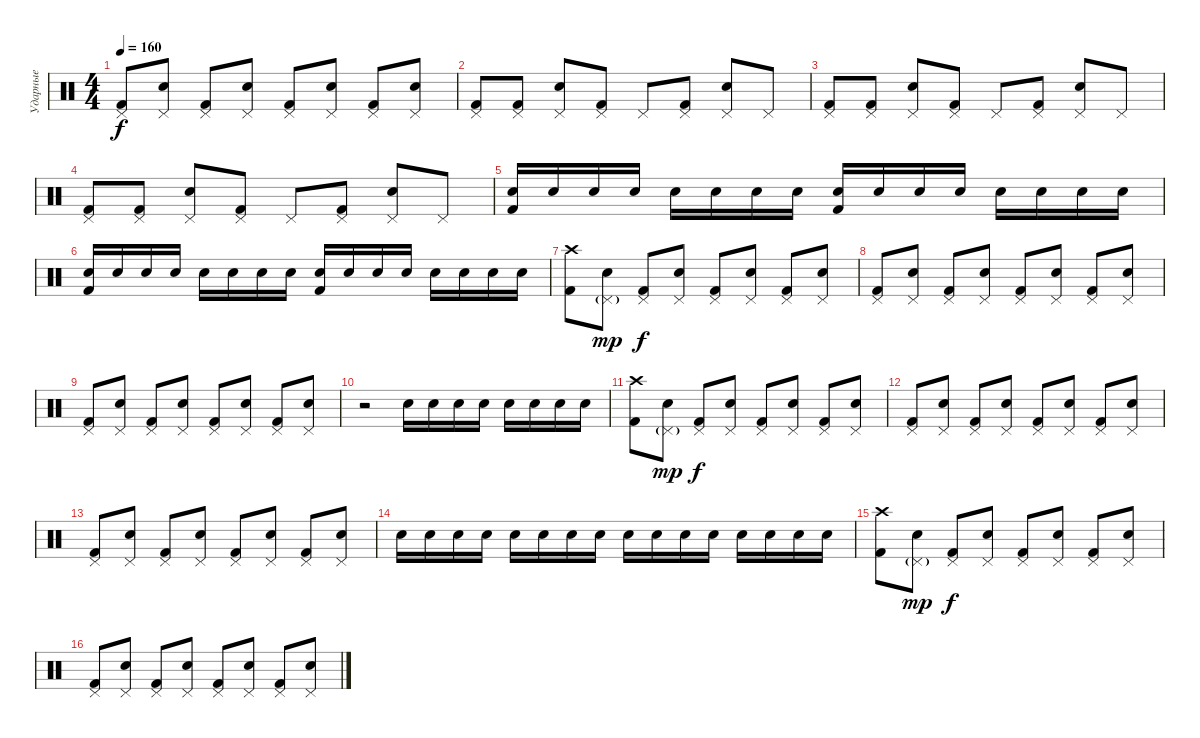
\track ("Ударные" "Ударные") {instrument percussion}
\staff {score}
\articulation defaults
\ts (4 4)
\tempo 160
\clef neutral
\ks c
("Kick (hit) 2" "Pedal Hi-Hat (hit)").8{dy f} ("Electric Snare (hit)" "Pedal Hi-Hat (hit)").8 ("Kick (hit) 2" "Pedal Hi-Hat (hit)").8 ("Electric Snare (hit)" "Pedal Hi-Hat (hit)").8 ("Kick (hit) 2" "Pedal Hi-Hat (hit)").8 ("Electric Snare (hit)" "Pedal Hi-Hat (hit)").8 ("Kick (hit) 2" "Pedal Hi-Hat (hit)").8 ("Electric Snare (hit)" "Pedal Hi-Hat (hit)").8 |
("Kick (hit) 2" "Pedal Hi-Hat (hit)").8 ("Kick (hit) 2" "Pedal Hi-Hat (hit)").8 ("Electric Snare (hit)" "Pedal Hi-Hat (hit)").8 ("Kick (hit) 2" "Pedal Hi-Hat (hit)").8 "Pedal Hi-Hat (hit)".8 ("Kick (hit) 2" "Pedal Hi-Hat (hit)").8 ("Electric Snare (hit)" "Pedal Hi-Hat (hit)").8 "Pedal Hi-Hat (hit)".8 |
("Kick (hit) 2" "Pedal Hi-Hat (hit)").8 ("Kick (hit) 2" "Pedal Hi-Hat (hit)").8 ("Electric Snare (hit)" "Pedal Hi-Hat (hit)").8 ("Kick (hit) 2" "Pedal Hi-Hat (hit)").8 "Pedal Hi-Hat (hit)".8 ("Kick (hit) 2" "Pedal Hi-Hat (hit)").8 ("Electric Snare (hit)" "Pedal Hi-Hat (hit)").8 "Pedal Hi-Hat (hit)".8 |
("Kick (hit) 2" "Pedal Hi-Hat (hit)").8 ("Kick (hit) 2" "Pedal Hi-Hat (hit)").8 ("Electric Snare (hit)" "Pedal Hi-Hat (hit)").8 ("Kick (hit) 2" "Pedal Hi-Hat (hit)").8 "Pedal Hi-Hat (hit)".8 ("Kick (hit) 2" "Pedal Hi-Hat (hit)").8 ("Electric Snare (hit)" "Pedal Hi-Hat (hit)").8 "Pedal Hi-Hat (hit)".8 |
("Electric Snare (hit)" "Kick (hit) 2").16 "Electric Snare (hit)".16 "Electric Snare (hit)".16 "Electric Snare (hit)".16 "Electric Snare (hit)".16 "Electric Snare (hit)".16 "Electric Snare (hit)".16 "Electric Snare (hit)".16 ("Electric Snare (hit)" "Kick (hit) 2").16 "Electric Snare (hit)".16 "Electric Snare (hit)".16 "Electric Snare (hit)".16 "Electric Snare (hit)".16 "Electric Snare (hit)".16 "Electric Snare (hit)".16 "Electric Snare (hit)".16 |
("Electric Snare (hit)" "Kick (hit) 2").16 "Electric Snare (hit)".16 "Electric Snare (hit)".16 "Electric Snare (hit)".16 "Electric Snare (hit)".16 "Electric Snare (hit)".16 "Electric Snare (hit)".16 "Electric Snare (hit)".16 ("Electric Snare (hit)" "Kick (hit) 2").16 "Electric Snare (hit)".16 "Electric Snare (hit)".16 "Electric Snare (hit)".16 "Electric Snare (hit)".16 "Electric Snare (hit)".16 "Electric Snare (hit)".16 "Electric Snare (hit)".16 |
("Kick (hit) 2" "Crash high (hit)").8 ("Electric Snare (hit)" "Pedal Hi-Hat (hit)"{g}).8{dy mp} ("Kick (hit) 2" "Pedal Hi-Hat (hit)").8{dy f} ("Electric Snare (hit)" "Pedal Hi-Hat (hit)").8 ("Kick (hit) 2" "Pedal Hi-Hat (hit)").8 ("Electric Snare (hit)" "Pedal Hi-Hat (hit)").8 ("Kick (hit) 2" "Pedal Hi-Hat (hit)").8 ("Electric Snare (hit)" "Pedal Hi-Hat (hit)").8 |
("Kick (hit) 2" "Pedal Hi-Hat (hit)").8 ("Electric Snare (hit)" "Pedal Hi-Hat (hit)").8 ("Kick (hit) 2" "Pedal Hi-Hat (hit)").8 ("Electric Snare (hit)" "Pedal Hi-Hat (hit)").8 ("Kick (hit) 2" "Pedal Hi-Hat (hit)").8 ("Electric Snare (hit)" "Pedal Hi-Hat (hit)").8 ("Kick (hit) 2" "Pedal Hi-Hat (hit)").8 ("Electric Snare (hit)" "Pedal Hi-Hat (hit)").8 |
("Kick (hit) 2" "Pedal Hi-Hat (hit)").8 ("Electric Snare (hit)" "Pedal Hi-Hat (hit)").8 ("Kick (hit) 2" "Pedal Hi-Hat (hit)").8 ("Electric Snare (hit)" "Pedal Hi-Hat (hit)").8 ("Kick (hit) 2" "Pedal Hi-Hat (hit)").8 ("Electric Snare (hit)" "Pedal Hi-Hat (hit)").8 ("Kick (hit) 2" "Pedal Hi-Hat (hit)").8 ("Electric Snare (hit)" "Pedal Hi-Hat (hit)").8 |
r.2 "Electric Snare (hit)".16 "Electric Snare (hit)".16 "Electric Snare (hit)".16 "Electric Snare (hit)".16 "Electric Snare (hit)".16 "Electric Snare (hit)".16 "Electric Snare (hit)".16 "Electric Snare (hit)".16 |
("Kick (hit) 2" "Crash high (hit)").8 ("Electric Snare (hit)" "Pedal Hi-Hat (hit)"{g}).8{dy mp} ("Kick (hit) 2" "Pedal Hi-Hat (hit)").8{dy f} ("Electric Snare (hit)" "Pedal Hi-Hat (hit)").8 ("Kick (hit) 2" "Pedal Hi-Hat (hit)").8 ("Electric Snare (hit)" "Pedal Hi-Hat (hit)").8 ("Kick (hit) 2" "Pedal Hi-Hat (hit)").8 ("Electric Snare (hit)" "Pedal Hi-Hat (hit)").8 |
("Kick (hit) 2" "Pedal Hi-Hat (hit)").8 ("Electric Snare (hit)" "Pedal Hi-Hat (hit)").8 ("Kick (hit) 2" "Pedal Hi-Hat (hit)").8 ("Electric Snare (hit)" "Pedal Hi-Hat (hit)").8 ("Kick (hit) 2" "Pedal Hi-Hat (hit)").8 ("Electric Snare (hit)" "Pedal Hi-Hat (hit)").8 ("Kick (hit) 2" "Pedal Hi-Hat (hit)").8 ("Electric Snare (hit)" "Pedal Hi-Hat (hit)").8 |
("Kick (hit) 2" "Pedal Hi-Hat (hit)").8 ("Electric Snare (hit)" "Pedal Hi-Hat (hit)").8 ("Kick (hit) 2" "Pedal Hi-Hat (hit)").8 ("Electric Snare (hit)" "Pedal Hi-Hat (hit)").8 ("Kick (hit) 2" "Pedal Hi-Hat (hit)").8 ("Electric Snare (hit)" "Pedal Hi-Hat (hit)").8 ("Kick (hit) 2" "Pedal Hi-Hat (hit)").8 ("Electric Snare (hit)" "Pedal Hi-Hat (hit)").8 |
"Electric Snare (hit)".16 "Electric Snare (hit)".16 "Electric Snare (hit)".16 "Electric Snare (hit)".16 "Electric Snare (hit)".16 "Electric Snare (hit)".16 "Electric Snare (hit)".16 "Electric Snare (hit)".16 "Electric Snare (hit)".16 "Electric Snare (hit)".16 "Electric Snare (hit)".16 "Electric Snare (hit)".16 "Electric Snare (hit)".16 "Electric Snare (hit)".16 "Electric Snare (hit)".16 "Electric Snare (hit)".16 |
("Kick (hit) 2" "Crash high (hit)").8 ("Electric Snare (hit)" "Pedal Hi-Hat (hit)"{g}).8{dy mp} ("Kick (hit) 2" "Pedal Hi-Hat (hit)").8{dy f} ("Electric Snare (hit)" "Pedal Hi-Hat (hit)").8 ("Kick (hit) 2" "Pedal Hi-Hat (hit)").8 ("Electric Snare (hit)" "Pedal Hi-Hat (hit)").8 ("Kick (hit) 2" "Pedal Hi-Hat (hit)").8 ("Electric Snare (hit)" "Pedal Hi-Hat (hit)").8 |
("Kick (hit) 2" "Pedal Hi-Hat (hit)").8 ("Electric Snare (hit)" "Pedal Hi-Hat (hit)").8 ("Kick (hit) 2" "Pedal Hi-Hat (hit)").8 ("Electric Snare (hit)" "Pedal Hi-Hat (hit)").8 ("Kick (hit) 2" "Pedal Hi-Hat (hit)").8 ("Electric Snare (hit)" "Pedal Hi-Hat (hit)").8 ("Kick (hit) 2" "Pedal Hi-Hat (hit)").8 ("Electric Snare (hit)" "Pedal Hi-Hat (hit)").8
